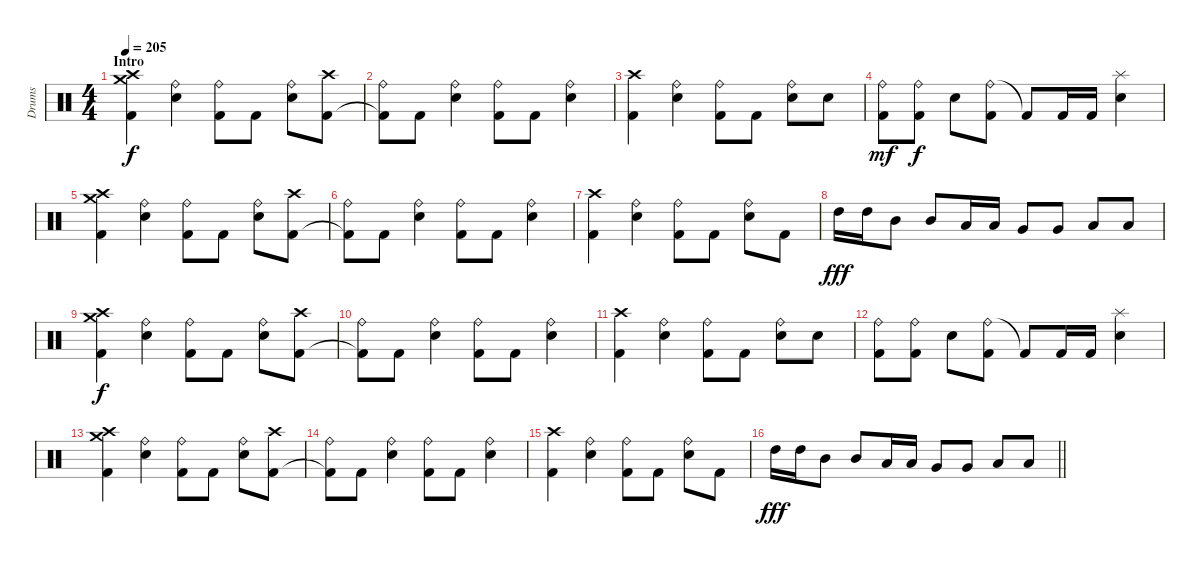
\track ("Drums" "Drums") {instrument percussion}
\staff {score}
\articulation defaults
\ts (4 4)
\section ("" "Intro")
\tempo 205
\clef neutral
\ks c
("Crash medium (hit)" "Crash high (hit)" "Kick (hit) 2").4{dy f} ("Ride (bell)" "Snare (hit) 2").4 ("Ride (bell)" "Kick (hit) 2").8 "Kick (hit) 2".8 ("Ride (bell)" "Snare (hit) 2").8 ("Crash high (hit)" "Kick (hit) 2").8 |
("Ride (bell)" "Kick (hit) 2"{t}).8 "Kick (hit) 2".8 ("Ride (bell)" "Snare (hit) 2").4 ("Ride (bell)" "Kick (hit) 2").8 "Kick (hit) 2".8 ("Ride (bell)" "Snare (hit) 2").4 |
("Crash high (hit)" "Kick (hit) 2").4 ("Ride (bell)" "Snare (hit) 2").4 ("Ride (bell)" "Kick (hit) 2").8 "Kick (hit) 2".8 ("Ride (bell)" "Snare (hit) 2").8 "Snare (hit) 2".8 |
("Ride (bell)" "Kick (hit) 2").8{dy mf} ("Ride (bell)" "Kick (hit) 2").8{dy f} "Snare (hit) 2".8 ("Ride (bell)" "Kick (hit) 2").8 "Kick (hit) 2"{t}.8 "Kick (hit) 2".16 "Kick (hit) 2".16 ("Splash (hit)" "Snare (hit) 2").4 |
("Crash medium (hit)" "Crash high (hit)" "Kick (hit) 2").4 ("Ride (bell)" "Snare (hit) 2").4 ("Ride (bell)" "Kick (hit) 2").8 "Kick (hit) 2".8 ("Ride (bell)" "Snare (hit) 2").8 ("Crash high (hit)" "Kick (hit) 2").8 |
("Ride (bell)" "Kick (hit) 2"{t}).8 "Kick (hit) 2".8 ("Ride (bell)" "Snare (hit) 2").4 ("Ride (bell)" "Kick (hit) 2").8 "Kick (hit) 2".8 ("Ride (bell)" "Snare (hit) 2").4 |
("Crash high (hit)" "Kick (hit) 2").4 ("Ride (bell)" "Snare (hit) 2").4 ("Ride (bell)" "Kick (hit) 2").8 "Kick (hit) 2".8 ("Ride (bell)" "Snare (hit) 2").8 "Kick (hit) 2".8 |
"High Tom (hit)".16{dy fff} "High Tom (hit)".16 "Mid Tom (hit)".8 "Mid Tom (hit)".8 "Low Tom (hit)".16 "Low Tom (hit)".16 "Very Low Tom (hit)".8 "Very Low Tom (hit)".8 "Low Floor Tom (hit)".8 "Low Floor Tom (hit)".8 |
("Crash medium (hit)" "Crash high (hit)" "Kick (hit) 2").4{dy f} ("Ride (bell)" "Snare (hit) 2").4 ("Ride (bell)" "Kick (hit) 2").8 "Kick (hit) 2".8 ("Ride (bell)" "Snare (hit) 2").8 ("Crash high (hit)" "Kick (hit) 2").8 |
("Ride (bell)" "Kick (hit) 2"{t}).8 "Kick (hit) 2".8 ("Ride (bell)" "Snare (hit) 2").4 ("Ride (bell)" "Kick (hit) 2").8 "Kick (hit) 2".8 ("Ride (bell)" "Snare (hit) 2").4 |
("Crash high (hit)" "Kick (hit) 2").4 ("Ride (bell)" "Snare (hit) 2").4 ("Ride (bell)" "Kick (hit) 2").8 "Kick (hit) 2".8 ("Ride (bell)" "Snare (hit) 2").8 "Snare (hit) 2".8 |
("Ride (bell)" "Kick (hit) 2").8 ("Ride (bell)" "Kick (hit) 2").8 "Snare (hit) 2".8 ("Ride (bell)" "Kick (hit) 2").8 "Kick (hit) 2"{t}.8 "Kick (hit) 2".16 "Kick (hit) 2".16 ("Splash (hit)" "Snare (hit) 2").4 |
("Crash medium (hit)" "Crash high (hit)" "Kick (hit) 2").4 ("Ride (bell)" "Snare (hit) 2").4 ("Ride (bell)" "Kick (hit) 2").8 "Kick (hit) 2".8 ("Ride (bell)" "Snare (hit) 2").8 ("Crash high (hit)" "Kick (hit) 2").8 |
("Ride (bell)" "Kick (hit) 2"{t}).8 "Kick (hit) 2".8 ("Ride (bell)" "Snare (hit) 2").4 ("Ride (bell)" "Kick (hit) 2").8 "Kick (hit) 2".8 ("Ride (bell)" "Snare (hit) 2").4 |
("Crash high (hit)" "Kick (hit) 2").4 ("Ride (bell)" "Snare (hit) 2").4 ("Ride (bell)" "Kick (hit) 2").8 "Kick (hit) 2".8 ("Ride (bell)" "Snare (hit) 2").8 "Kick (hit) 2".8 |
\barLineRight lightlight "High Tom (hit)".16{dy fff} "High Tom (hit)".16 "Mid Tom (hit)".8 "Mid Tom (hit)".8 "Low Tom (hit)".16 "Low Tom (hit)".16 "Very Low Tom (hit)".8 "Very Low Tom (hit)".8 "Low Floor Tom (hit)".8 "Low Floor Tom (hit)".8
